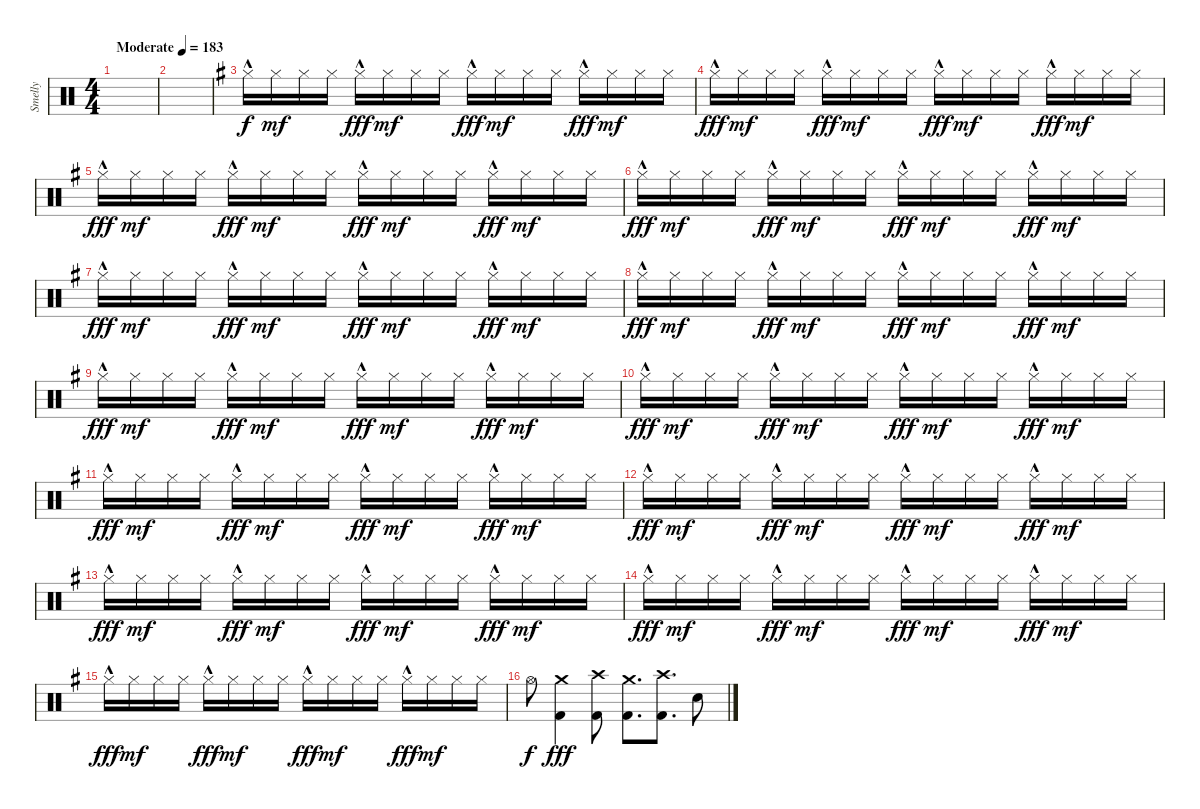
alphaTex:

\track ("Smelly" "Smelly") {instrument percussion}
\staff {score}
\articulation defaults
\ts (4 4)
\tempo (183 "Moderate")
\clef neutral
\ks c
|
|
\ks eminor "Hi-Hat (closed)"{hac}.16 "Hi-Hat (closed)".16{dy mf} "Hi-Hat (closed)".16 "Hi-Hat (closed)".16 "Hi-Hat (closed)"{hac}.16{dy fff} "Hi-Hat (closed)".16{dy mf} "Hi-Hat (closed)".16 "Hi-Hat (closed)".16 "Hi-Hat (closed)"{hac}.16{dy fff} "Hi-Hat (closed)".16{dy mf} "Hi-Hat (closed)".16 "Hi-Hat (closed)".16 "Hi-Hat (closed)"{hac}.16{dy fff} "Hi-Hat (closed)".16{dy mf} "Hi-Hat (closed)".16 "Hi-Hat (closed)".16
|
"Hi-Hat (closed)"{hac}.16{dy fff} "Hi-Hat (closed)".16{dy mf} "Hi-Hat (closed)".16 "Hi-Hat (closed)".16 "Hi-Hat (closed)"{hac}.16{dy fff} "Hi-Hat (closed)".16{dy mf} "Hi-Hat (closed)".16 "Hi-Hat (closed)".16 "Hi-Hat (closed)"{hac}.16{dy fff} "Hi-Hat (closed)".16{dy mf} "Hi-Hat (closed)".16 "Hi-Hat (closed)".16 "Hi-Hat (closed)"{hac}.16{dy fff} "Hi-Hat (closed)".16{dy mf} "Hi-Hat (closed)".16 "Hi-Hat (closed)".16 |
"Hi-Hat (closed)"{hac}.16{dy fff} "Hi-Hat (closed)".16{dy mf} "Hi-Hat (closed)".16 "Hi-Hat (closed)".16 "Hi-Hat (closed)"{hac}.16{dy fff} "Hi-Hat (closed)".16{dy mf} "Hi-Hat (closed)".16 "Hi-Hat (closed)".16 "Hi-Hat (closed)"{hac}.16{dy fff} "Hi-Hat (closed)".16{dy mf} "Hi-Hat (closed)".16 "Hi-Hat (closed)".16 "Hi-Hat (closed)"{hac}.16{dy fff} "Hi-Hat (closed)".16{dy mf} "Hi-Hat (closed)".16 "Hi-Hat (closed)".16 |
"Hi-Hat (closed)"{hac}.16{dy fff} "Hi-Hat (closed)".16{dy mf} "Hi-Hat (closed)".16 "Hi-Hat (closed)".16 "Hi-Hat (closed)"{hac}.16{dy fff} "Hi-Hat (closed)".16{dy mf} "Hi-Hat (closed)".16 "Hi-Hat (closed)".16 "Hi-Hat (closed)"{hac}.16{dy fff} "Hi-Hat (closed)".16{dy mf} "Hi-Hat (closed)".16 "Hi-Hat (closed)".16 "Hi-Hat (closed)"{hac}.16{dy fff} "Hi-Hat (closed)".16{dy mf} "Hi-Hat (closed)".16 "Hi-Hat (closed)".16 |
"Hi-Hat (closed)"{hac}.16{dy fff} "Hi-Hat (closed)".16{dy mf} "Hi-Hat (closed)".16 "Hi-Hat (closed)".16 "Hi-Hat (closed)"{hac}.16{dy fff} "Hi-Hat (closed)".16{dy mf} "Hi-Hat (closed)".16 "Hi-Hat (closed)".16 "Hi-Hat (closed)"{hac}.16{dy fff} "Hi-Hat (closed)".16{dy mf} "Hi-Hat (closed)".16 "Hi-Hat (closed)".16 "Hi-Hat (closed)"{hac}.16{dy fff} "Hi-Hat (closed)".16{dy mf} "Hi-Hat (closed)".16 "Hi-Hat (closed)".16 |
"Hi-Hat (closed)"{hac}.16{dy fff} "Hi-Hat (closed)".16{dy mf} "Hi-Hat (closed)".16 "Hi-Hat (closed)".16 "Hi-Hat (closed)"{hac}.16{dy fff} "Hi-Hat (closed)".16{dy mf} "Hi-Hat (closed)".16 "Hi-Hat (closed)".16 "Hi-Hat (closed)"{hac}.16{dy fff} "Hi-Hat (closed)".16{dy mf} "Hi-Hat (closed)".16 "Hi-Hat (closed)".16 "Hi-Hat (closed)"{hac}.16{dy fff} "Hi-Hat (closed)".16{dy mf} "Hi-Hat (closed)".16 "Hi-Hat (closed)".16 |
"Hi-Hat (closed)"{hac}.16{dy fff} "Hi-Hat (closed)".16{dy mf} "Hi-Hat (closed)".16 "Hi-Hat (closed)".16 "Hi-Hat (closed)"{hac}.16{dy fff} "Hi-Hat (closed)".16{dy mf} "Hi-Hat (closed)".16 "Hi-Hat (closed)".16 "Hi-Hat (closed)"{hac}.16{dy fff} "Hi-Hat (closed)".16{dy mf} "Hi-Hat (closed)".16 "Hi-Hat (closed)".16 "Hi-Hat (closed)"{hac}.16{dy fff} "Hi-Hat (closed)".16{dy mf} "Hi-Hat (closed)".16 "Hi-Hat (closed)".16 |
"Hi-Hat (closed)"{hac}.16{dy fff} "Hi-Hat (closed)".16{dy mf} "Hi-Hat (closed)".16 "Hi-Hat (closed)".16 "Hi-Hat (closed)"{hac}.16{dy fff} "Hi-Hat (closed)".16{dy mf} "Hi-Hat (closed)".16 "Hi-Hat (closed)".16 "Hi-Hat (closed)"{hac}.16{dy fff} "Hi-Hat (closed)".16{dy mf} "Hi-Hat (closed)".16 "Hi-Hat (closed)".16 "Hi-Hat (closed)"{hac}.16{dy fff} "Hi-Hat (closed)".16{dy mf} "Hi-Hat (closed)".16 "Hi-Hat (closed)".16 |
"Hi-Hat (closed)"{hac}.16{dy fff} "Hi-Hat (closed)".16{dy mf} "Hi-Hat (closed)".16 "Hi-Hat (closed)".16 "Hi-Hat (closed)"{hac}.16{dy fff} "Hi-Hat (closed)".16{dy mf} "Hi-Hat (closed)".16 "Hi-Hat (closed)".16 "Hi-Hat (closed)"{hac}.16{dy fff} "Hi-Hat (closed)".16{dy mf} "Hi-Hat (closed)".16 "Hi-Hat (closed)".16 "Hi-Hat (closed)"{hac}.16{dy fff} "Hi-Hat (closed)".16{dy mf} "Hi-Hat (closed)".16 "Hi-Hat (closed)".16 |
"Hi-Hat (closed)"{hac}.16{dy fff} "Hi-Hat (closed)".16{dy mf} "Hi-Hat (closed)".16 "Hi-Hat (closed)".16 "Hi-Hat (closed)"{hac}.16{dy fff} "Hi-Hat (closed)".16{dy mf} "Hi-Hat (closed)".16 "Hi-Hat (closed)".16 "Hi-Hat (closed)"{hac}.16{dy fff} "Hi-Hat (closed)".16{dy mf} "Hi-Hat (closed)".16 "Hi-Hat (closed)".16 "Hi-Hat (closed)"{hac}.16{dy fff} "Hi-Hat (closed)".16{dy mf} "Hi-Hat (closed)".16 "Hi-Hat (closed)".16 |
"Hi-Hat (closed)"{hac}.16{dy fff} "Hi-Hat (closed)".16{dy mf} "Hi-Hat (closed)".16 "Hi-Hat (closed)".16 "Hi-Hat (closed)"{hac}.16{dy fff} "Hi-Hat (closed)".16{dy mf} "Hi-Hat (closed)".16 "Hi-Hat (closed)".16 "Hi-Hat (closed)"{hac}.16{dy fff} "Hi-Hat (closed)".16{dy mf} "Hi-Hat (closed)".16 "Hi-Hat (closed)".16 "Hi-Hat (closed)"{hac}.16{dy fff} "Hi-Hat (closed)".16{dy mf} "Hi-Hat (closed)".16 "Hi-Hat (closed)".16 |
"Hi-Hat (closed)"{hac}.16{dy fff} "Hi-Hat (closed)".16{dy mf} "Hi-Hat (closed)".16 "Hi-Hat (closed)".16 "Hi-Hat (closed)"{hac}.16{dy fff} "Hi-Hat (closed)".16{dy mf} "Hi-Hat (closed)".16 "Hi-Hat (closed)".16 "Hi-Hat (closed)"{hac}.16{dy fff} "Hi-Hat (closed)".16{dy mf} "Hi-Hat (closed)".16 "Hi-Hat (closed)".16 "Hi-Hat (closed)"{hac}.16{dy fff} "Hi-Hat (closed)".16{dy mf} "Hi-Hat (closed)".16 "Hi-Hat (closed)".16 |
"Hi-Hat (closed)"{hac}.16{dy fff} "Hi-Hat (closed)".16{dy mf} "Hi-Hat (closed)".16 "Hi-Hat (closed)".16 "Hi-Hat (closed)"{hac}.16{dy fff} "Hi-Hat (closed)".16{dy mf} "Hi-Hat (closed)".16 "Hi-Hat (closed)".16 "Hi-Hat (closed)"{hac}.16{dy fff} "Hi-Hat (closed)".16{dy mf} "Hi-Hat (closed)".16 "Hi-Hat (closed)".16 "Hi-Hat (closed)"{hac}.16{dy fff} "Hi-Hat (closed)".16{dy mf} "Hi-Hat (closed)".16 "Hi-Hat (closed)".16 |
"Hi-Hat (open)".8{dy f} ("Crash medium (hit)" "Kick (hit) 2").4{dy fff} ("Crash high (hit)" "Kick (hit) 2").8 ("Crash medium (hit)" "Kick (hit) 2").8{d} ("Crash high (hit)" "Kick (hit) 2").8{d} "Electric Snare (hit)".8
